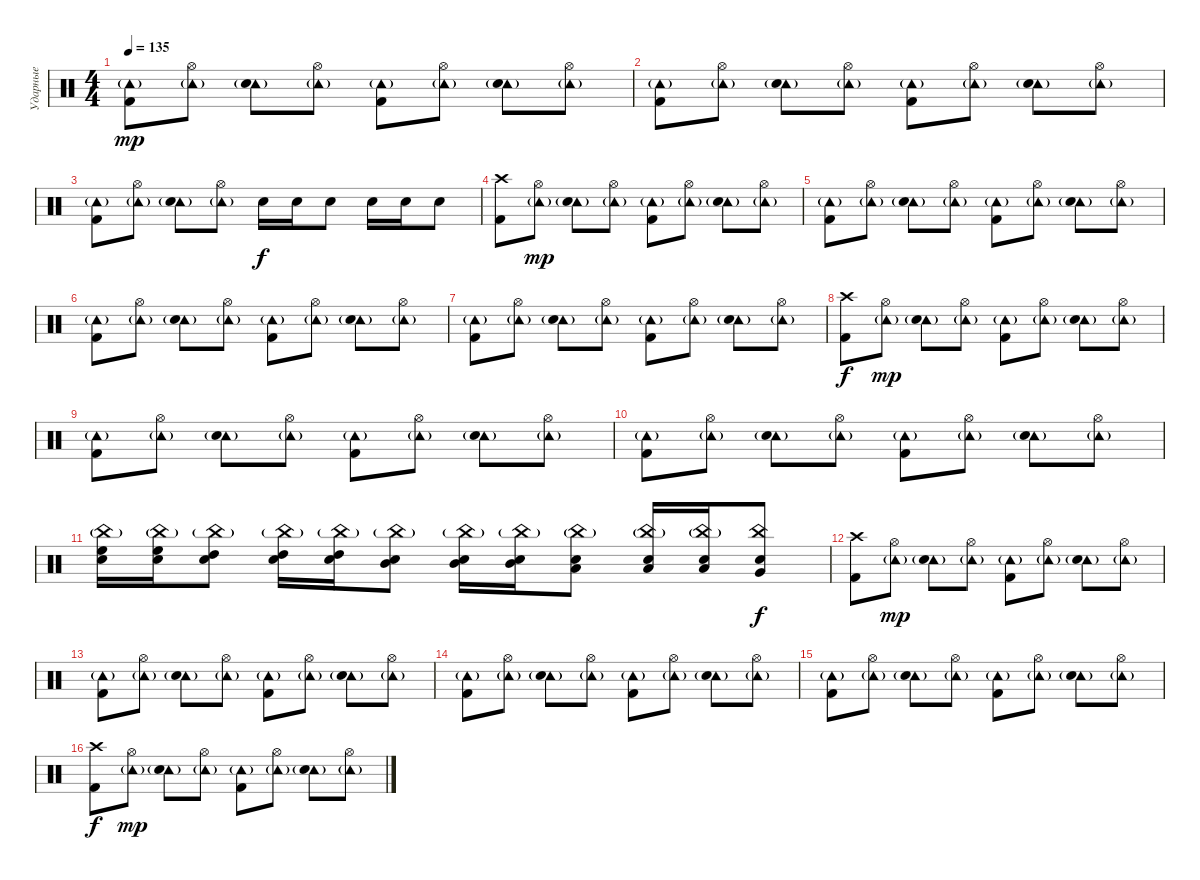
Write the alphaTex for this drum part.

\track ("Ударные" "Ударные") {instrument percussion}
\staff {score}
\articulation defaults
\ts (4 4)
\tempo 135
\clef neutral
\ks c
("Tambourine (hit)"{g} "Kick (hit) 2").8{dy mp} ("Tambourine (hit)"{g} "Hi-Hat (open)").8 ("Tambourine (hit)"{g} "Electric Snare (hit)").8 ("Tambourine (hit)"{g} "Hi-Hat (open)").8 ("Tambourine (hit)"{g} "Kick (hit) 2").8 ("Tambourine (hit)"{g} "Hi-Hat (open)").8 ("Tambourine (hit)"{g} "Electric Snare (hit)").8 ("Tambourine (hit)"{g} "Hi-Hat (open)").8 |
("Tambourine (hit)"{g} "Kick (hit) 2").8 ("Tambourine (hit)"{g} "Hi-Hat (open)").8 ("Tambourine (hit)"{g} "Electric Snare (hit)").8 ("Tambourine (hit)"{g} "Hi-Hat (open)").8 ("Tambourine (hit)"{g} "Kick (hit) 2").8 ("Tambourine (hit)"{g} "Hi-Hat (open)").8 ("Tambourine (hit)"{g} "Electric Snare (hit)").8 ("Tambourine (hit)"{g} "Hi-Hat (open)").8 |
("Tambourine (hit)"{g} "Kick (hit) 2").8 ("Tambourine (hit)"{g} "Hi-Hat (open)").8 ("Tambourine (hit)"{g} "Electric Snare (hit)").8 ("Tambourine (hit)"{g} "Hi-Hat (open)").8 "Electric Snare (hit)".16{dy f} "Electric Snare (hit)".16 "Electric Snare (hit)".8 "Electric Snare (hit)".16 "Electric Snare (hit)".16 "Electric Snare (hit)".8 |
("Crash high (hit)" "Kick (hit) 2").8 ("Tambourine (hit)"{g} "Hi-Hat (open)").8{dy mp} ("Tambourine (hit)"{g} "Electric Snare (hit)").8 ("Tambourine (hit)"{g} "Hi-Hat (open)").8 ("Tambourine (hit)"{g} "Kick (hit) 2").8 ("Tambourine (hit)"{g} "Hi-Hat (open)").8 ("Tambourine (hit)"{g} "Electric Snare (hit)").8 ("Tambourine (hit)"{g} "Hi-Hat (open)").8 |
("Tambourine (hit)"{g} "Kick (hit) 2").8 ("Tambourine (hit)"{g} "Hi-Hat (open)").8 ("Tambourine (hit)"{g} "Electric Snare (hit)").8 ("Tambourine (hit)"{g} "Hi-Hat (open)").8 ("Tambourine (hit)"{g} "Kick (hit) 2").8 ("Tambourine (hit)"{g} "Hi-Hat (open)").8 ("Tambourine (hit)"{g} "Electric Snare (hit)").8 ("Tambourine (hit)"{g} "Hi-Hat (open)").8 |
("Tambourine (hit)"{g} "Kick (hit) 2").8 ("Tambourine (hit)"{g} "Hi-Hat (open)").8 ("Tambourine (hit)"{g} "Electric Snare (hit)").8 ("Tambourine (hit)"{g} "Hi-Hat (open)").8 ("Tambourine (hit)"{g} "Kick (hit) 2").8 ("Tambourine (hit)"{g} "Hi-Hat (open)").8 ("Tambourine (hit)"{g} "Electric Snare (hit)").8 ("Tambourine (hit)"{g} "Hi-Hat (open)").8 |
("Tambourine (hit)"{g} "Kick (hit) 2").8 ("Tambourine (hit)"{g} "Hi-Hat (open)").8 ("Tambourine (hit)"{g} "Electric Snare (hit)").8 ("Tambourine (hit)"{g} "Hi-Hat (open)").8 ("Tambourine (hit)"{g} "Kick (hit) 2").8 ("Tambourine (hit)"{g} "Hi-Hat (open)").8 ("Tambourine (hit)"{g} "Electric Snare (hit)").8 ("Tambourine (hit)"{g} "Hi-Hat (open)").8 |
("Crash high (hit)" "Kick (hit) 2").8{dy f} ("Tambourine (hit)"{g} "Hi-Hat (open)").8{dy mp} ("Tambourine (hit)"{g} "Electric Snare (hit)").8 ("Tambourine (hit)"{g} "Hi-Hat (open)").8 ("Tambourine (hit)"{g} "Kick (hit) 2").8 ("Tambourine (hit)"{g} "Hi-Hat (open)").8 ("Tambourine (hit)"{g} "Electric Snare (hit)").8 ("Tambourine (hit)"{g} "Hi-Hat (open)").8 |
("Tambourine (hit)"{g} "Kick (hit) 2").8 ("Tambourine (hit)"{g} "Hi-Hat (open)").8 ("Tambourine (hit)"{g} "Electric Snare (hit)").8 ("Tambourine (hit)"{g} "Hi-Hat (open)").8 ("Tambourine (hit)"{g} "Kick (hit) 2").8 ("Tambourine (hit)"{g} "Hi-Hat (open)").8 ("Tambourine (hit)"{g} "Electric Snare (hit)").8 ("Tambourine (hit)"{g} "Hi-Hat (open)").8 |
("Tambourine (hit)"{g} "Kick (hit) 2").8 ("Tambourine (hit)"{g} "Hi-Hat (open)").8 ("Tambourine (hit)"{g} "Electric Snare (hit)").8 ("Tambourine (hit)"{g} "Hi-Hat (open)").8 ("Tambourine (hit)"{g} "Kick (hit) 2").8 ("Tambourine (hit)"{g} "Hi-Hat (open)").8 ("Tambourine (hit)"{g} "Electric Snare (hit)").8 ("Tambourine (hit)"{g} "Hi-Hat (open)").8 |
("Electric Snare (hit)" "China (hit)"{g} "High Floor Tom (hit)").16 ("Electric Snare (hit)" "China (hit)"{g} "High Floor Tom (hit)").16 ("Electric Snare (hit)" "China (hit)"{g} "High Tom (hit)").8 ("Electric Snare (hit)" "China (hit)"{g} "High Tom (hit)").16 ("Electric Snare (hit)" "China (hit)"{g} "High Tom (hit)").16 ("Electric Snare (hit)" "China (hit)"{g} "Mid Tom (hit)").8 ("Electric Snare (hit)" "China (hit)"{g} "Mid Tom (hit)").16 ("Electric Snare (hit)" "China (hit)"{g} "Mid Tom (hit)").16 ("Electric Snare (hit)" "China (hit)"{g} "Low Tom (hit)").8 ("Electric Snare (hit)" "China (hit)"{g} "Low Tom (hit)").16 ("Electric Snare (hit)" "China (hit)"{g} "Low Tom (hit)").16 ("Electric Snare (hit)" "China (hit)" "Very Low Tom (hit)").8{dy f} |
("Crash high (hit)" "Kick (hit) 2").8 ("Tambourine (hit)"{g} "Hi-Hat (open)").8{dy mp} ("Tambourine (hit)"{g} "Electric Snare (hit)").8 ("Tambourine (hit)"{g} "Hi-Hat (open)").8 ("Tambourine (hit)"{g} "Kick (hit) 2").8 ("Tambourine (hit)"{g} "Hi-Hat (open)").8 ("Tambourine (hit)"{g} "Electric Snare (hit)").8 ("Tambourine (hit)"{g} "Hi-Hat (open)").8 |
("Tambourine (hit)"{g} "Kick (hit) 2").8 ("Tambourine (hit)"{g} "Hi-Hat (open)").8 ("Tambourine (hit)"{g} "Electric Snare (hit)").8 ("Tambourine (hit)"{g} "Hi-Hat (open)").8 ("Tambourine (hit)"{g} "Kick (hit) 2").8 ("Tambourine (hit)"{g} "Hi-Hat (open)").8 ("Tambourine (hit)"{g} "Electric Snare (hit)").8 ("Tambourine (hit)"{g} "Hi-Hat (open)").8 |
("Tambourine (hit)"{g} "Kick (hit) 2").8 ("Tambourine (hit)"{g} "Hi-Hat (open)").8 ("Tambourine (hit)"{g} "Electric Snare (hit)").8 ("Tambourine (hit)"{g} "Hi-Hat (open)").8 ("Tambourine (hit)"{g} "Kick (hit) 2").8 ("Tambourine (hit)"{g} "Hi-Hat (open)").8 ("Tambourine (hit)"{g} "Electric Snare (hit)").8 ("Tambourine (hit)"{g} "Hi-Hat (open)").8 |
("Tambourine (hit)"{g} "Kick (hit) 2").8 ("Tambourine (hit)"{g} "Hi-Hat (open)").8 ("Tambourine (hit)"{g} "Electric Snare (hit)").8 ("Tambourine (hit)"{g} "Hi-Hat (open)").8 ("Tambourine (hit)"{g} "Kick (hit) 2").8 ("Tambourine (hit)"{g} "Hi-Hat (open)").8 ("Tambourine (hit)"{g} "Electric Snare (hit)").8 ("Tambourine (hit)"{g} "Hi-Hat (open)").8 |
("Crash high (hit)" "Kick (hit) 2").8{dy f} ("Tambourine (hit)"{g} "Hi-Hat (open)").8{dy mp} ("Tambourine (hit)"{g} "Electric Snare (hit)").8 ("Tambourine (hit)"{g} "Hi-Hat (open)").8 ("Tambourine (hit)"{g} "Kick (hit) 2").8 ("Tambourine (hit)"{g} "Hi-Hat (open)").8 ("Tambourine (hit)"{g} "Electric Snare (hit)").8 ("Tambourine (hit)"{g} "Hi-Hat (open)").8
